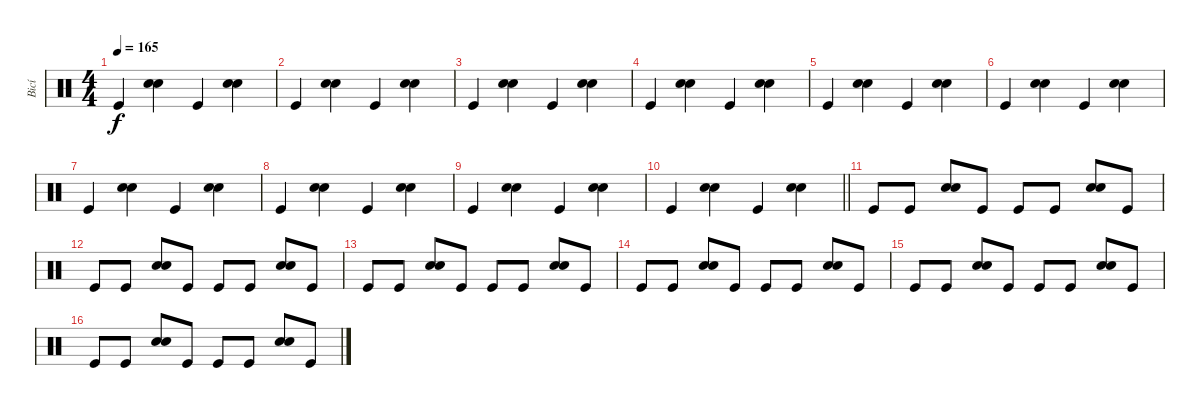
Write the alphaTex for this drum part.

\track ("Bicí" "Bicí") {instrument percussion}
\staff {score}
\articulation defaults
\ts (4 4)
\tempo 165
\clef neutral
\ks c "Kick (hit)".4{dy f}
("Hand Clap (hit)" "Electric Snare (hit)").4 "Kick (hit)".4 ("Hand Clap (hit)" "Electric Snare (hit)").4 |
"Kick (hit)".4 ("Hand Clap (hit)" "Electric Snare (hit)").4 "Kick (hit)".4 ("Hand Clap (hit)" "Electric Snare (hit)").4 |
"Kick (hit)".4 ("Hand Clap (hit)" "Electric Snare (hit)").4 "Kick (hit)".4 ("Hand Clap (hit)" "Electric Snare (hit)").4 |
"Kick (hit)".4 ("Hand Clap (hit)" "Electric Snare (hit)").4 "Kick (hit)".4 ("Hand Clap (hit)" "Electric Snare (hit)").4 |
"Kick (hit)".4 ("Hand Clap (hit)" "Electric Snare (hit)").4 "Kick (hit)".4 ("Hand Clap (hit)" "Electric Snare (hit)").4 |
"Kick (hit)".4 ("Hand Clap (hit)" "Electric Snare (hit)").4 "Kick (hit)".4 ("Hand Clap (hit)" "Electric Snare (hit)").4 |
"Kick (hit)".4 ("Hand Clap (hit)" "Electric Snare (hit)").4 "Kick (hit)".4 ("Hand Clap (hit)" "Electric Snare (hit)").4 |
"Kick (hit)".4 ("Hand Clap (hit)" "Electric Snare (hit)").4 "Kick (hit)".4 ("Hand Clap (hit)" "Electric Snare (hit)").4 |
"Kick (hit)".4 ("Hand Clap (hit)" "Electric Snare (hit)").4 "Kick (hit)".4 ("Hand Clap (hit)" "Electric Snare (hit)").4 |
\barLineRight lightlight "Kick (hit)".4
("Hand Clap (hit)" "Electric Snare (hit)").4 "Kick (hit)".4 ("Hand Clap (hit)" "Electric Snare (hit)").4 |
\section ("" "")
"Kick (hit)".8 "Kick (hit)".8 ("Hand Clap (hit)" "Electric Snare (hit)").8 "Kick (hit)".8 "Kick (hit)".8 "Kick (hit)".8 ("Hand Clap (hit)" "Electric Snare (hit)").8 "Kick (hit)".8 |
"Kick (hit)".8 "Kick (hit)".8 ("Hand Clap (hit)" "Electric Snare (hit)").8 "Kick (hit)".8 "Kick (hit)".8 "Kick (hit)".8 ("Hand Clap (hit)" "Electric Snare (hit)").8 "Kick (hit)".8 |
"Kick (hit)".8 "Kick (hit)".8 ("Hand Clap (hit)" "Electric Snare (hit)").8 "Kick (hit)".8 "Kick (hit)".8 "Kick (hit)".8 ("Hand Clap (hit)" "Electric Snare (hit)").8 "Kick (hit)".8 |
"Kick (hit)".8 "Kick (hit)".8 ("Hand Clap (hit)" "Electric Snare (hit)").8 "Kick (hit)".8 "Kick (hit)".8 "Kick (hit)".8 ("Hand Clap (hit)" "Electric Snare (hit)").8 "Kick (hit)".8 |
"Kick (hit)".8 "Kick (hit)".8 ("Hand Clap (hit)" "Electric Snare (hit)").8 "Kick (hit)".8 "Kick (hit)".8 "Kick (hit)".8 ("Hand Clap (hit)" "Electric Snare (hit)").8 "Kick (hit)".8 |
"Kick (hit)".8 "Kick (hit)".8 ("Hand Clap (hit)" "Electric Snare (hit)").8 "Kick (hit)".8 "Kick (hit)".8 "Kick (hit)".8 ("Hand Clap (hit)" "Electric Snare (hit)").8 "Kick (hit)".8
